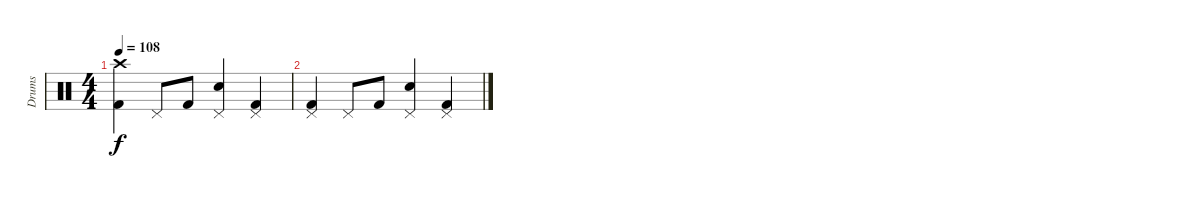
\track ("Drums" "Drums") {instrument percussion}
\staff
\articulation defaults
\ts (4 4)
\tempo 108
\clef neutral
\ks c
("Crash high (hit)" "Kick (hit) 2").4{dy f} "Pedal Hi-Hat (hit)".8 "Kick (hit) 2".8 ("Pedal Hi-Hat (hit)" "Snare (hit) 2").4 ("Pedal Hi-Hat (hit)" "Kick (hit) 2").4 |
("Pedal Hi-Hat (hit)" "Kick (hit) 2").4 "Pedal Hi-Hat (hit)".8 "Kick (hit) 2".8 ("Pedal Hi-Hat (hit)" "Snare (hit) 2").4 ("Pedal Hi-Hat (hit)" "Kick (hit) 2").4
